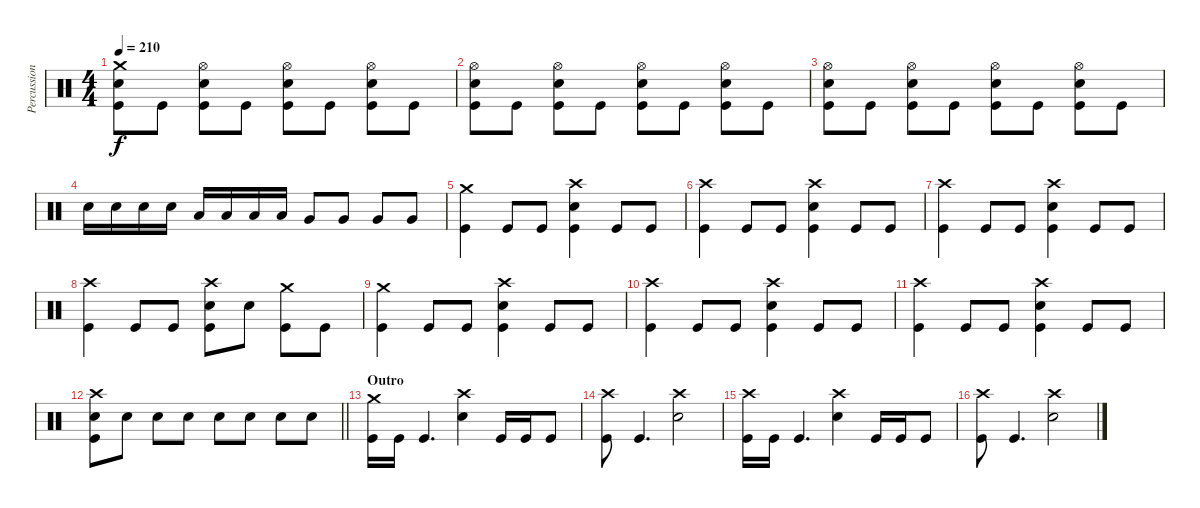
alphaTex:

\track ("Percussion" "Percussion") {instrument percussion}
\staff {score}
\articulation defaults
\ts (4 4)
\tempo 210
\clef neutral
\ks c
("Crash medium (hit)" "Electric Snare (hit)" "Kick (hit)").8{dy f} "Kick (hit)".8 ("Hi-Hat (open)" "Electric Snare (hit)" "Kick (hit)").8 "Kick (hit)".8 ("Hi-Hat (open)" "Electric Snare (hit)" "Kick (hit)").8 "Kick (hit)".8 ("Hi-Hat (open)" "Electric Snare (hit)" "Kick (hit)").8 "Kick (hit)".8 |
("Hi-Hat (open)" "Electric Snare (hit)" "Kick (hit)").8 "Kick (hit)".8 ("Hi-Hat (open)" "Electric Snare (hit)" "Kick (hit)").8 "Kick (hit)".8 ("Hi-Hat (open)" "Electric Snare (hit)" "Kick (hit)").8 "Kick (hit)".8 ("Hi-Hat (open)" "Electric Snare (hit)" "Kick (hit)").8 "Kick (hit)".8 |
("Hi-Hat (open)" "Electric Snare (hit)" "Kick (hit)").8 "Kick (hit)".8 ("Hi-Hat (open)" "Electric Snare (hit)" "Kick (hit)").8 "Kick (hit)".8 ("Hi-Hat (open)" "Electric Snare (hit)" "Kick (hit)").8 "Kick (hit)".8 ("Hi-Hat (open)" "Electric Snare (hit)" "Kick (hit)").8 "Kick (hit)".8 |
"Electric Snare (hit)".16 "Electric Snare (hit)".16 "Electric Snare (hit)".16 "Electric Snare (hit)".16 "Low Tom (hit)".16 "Low Tom (hit)".16 "Low Tom (hit)".16 "Low Tom (hit)".16 "Very Low Tom (hit)".8 "Very Low Tom (hit)".8 "Very Low Tom (hit)".8 "Very Low Tom (hit)".8 |
("Crash medium (hit)" "Kick (hit)").4 "Kick (hit)".8 "Kick (hit)".8 ("Crash high (hit)" "Electric Snare (hit)" "Kick (hit)").4 "Kick (hit)".8 "Kick (hit)".8 |
("Crash high (hit)" "Kick (hit)").4 "Kick (hit)".8 "Kick (hit)".8 ("Crash high (hit)" "Electric Snare (hit)" "Kick (hit)").4 "Kick (hit)".8 "Kick (hit)".8 |
("Crash high (hit)" "Kick (hit)").4 "Kick (hit)".8 "Kick (hit)".8 ("Crash high (hit)" "Electric Snare (hit)" "Kick (hit)").4 "Kick (hit)".8 "Kick (hit)".8 |
("Crash high (hit)" "Kick (hit)").4 "Kick (hit)".8 "Kick (hit)".8 ("Crash high (hit)" "Electric Snare (hit)" "Kick (hit)").8 "Electric Snare (hit)".8 ("Crash medium (hit)" "Kick (hit)").8 "Kick (hit)".8 |
("Crash medium (hit)" "Kick (hit)").4 "Kick (hit)".8 "Kick (hit)".8 ("Crash high (hit)" "Electric Snare (hit)" "Kick (hit)").4 "Kick (hit)".8 "Kick (hit)".8 |
("Crash high (hit)" "Kick (hit)").4 "Kick (hit)".8 "Kick (hit)".8 ("Crash high (hit)" "Electric Snare (hit)" "Kick (hit)").4 "Kick (hit)".8 "Kick (hit)".8 |
("Crash high (hit)" "Kick (hit)").4 "Kick (hit)".8 "Kick (hit)".8 ("Crash high (hit)" "Electric Snare (hit)" "Kick (hit)").4 "Kick (hit)".8 "Kick (hit)".8 |
\barLineRight lightlight
("Crash high (hit)" "Electric Snare (hit)" "Kick (hit)").8 "Electric Snare (hit)".8 "Electric Snare (hit)".8 "Electric Snare (hit)".8 "Electric Snare (hit)".8 "Electric Snare (hit)".8 "Electric Snare (hit)".8 "Electric Snare (hit)".8 |
\section ("" "Outro")
("Crash medium (hit)" "Kick (hit)").16 "Kick (hit)".16 "Kick (hit)".4{d} ("Crash high (hit)" "Electric Snare (hit)").4 "Kick (hit)".16 "Kick (hit)".16 "Kick (hit)".8 |
("Crash high (hit)" "Kick (hit)").8 "Kick (hit)".4{d} ("Crash high (hit)" "Electric Snare (hit)").2 |
("Crash high (hit)" "Kick (hit)").16 "Kick (hit)".16 "Kick (hit)".4{d} ("Crash high (hit)" "Electric Snare (hit)").4 "Kick (hit)".16 "Kick (hit)".16 "Kick (hit)".8 |
("Crash high (hit)" "Kick (hit)").8 "Kick (hit)".4{d} ("Crash high (hit)" "Electric Snare (hit)").2
